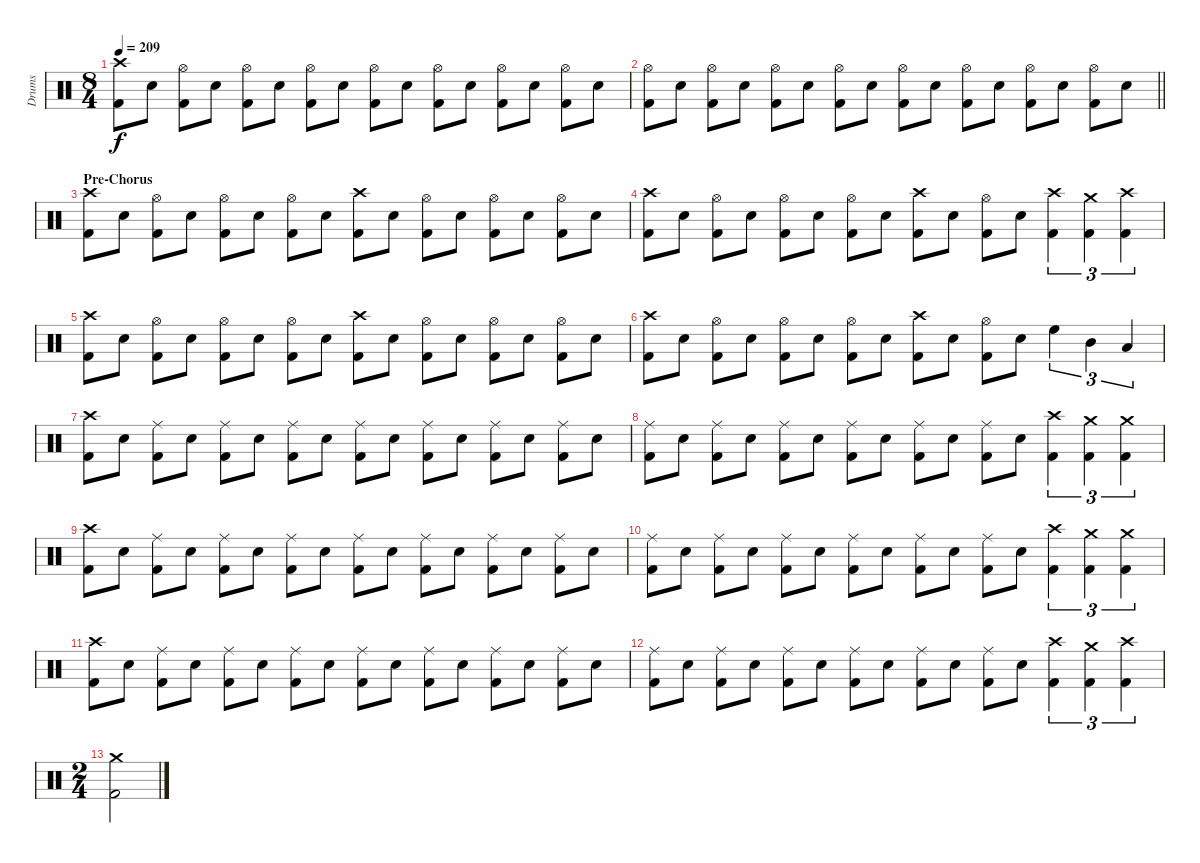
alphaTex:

\track ("Drums" "Drums") {instrument percussion}
\staff {score}
\articulation defaults
\ts (8 4)
\tempo 209
\clef neutral
\ks c
("Crash high (hit)" "Kick (hit) 2").8{dy f} "Snare (hit) 2".8 ("Hi-Hat (open)" "Kick (hit) 2").8 "Snare (hit) 2".8 ("Hi-Hat (open)" "Kick (hit) 2").8 "Snare (hit) 2".8 ("Hi-Hat (open)" "Kick (hit) 2").8 "Snare (hit) 2".8 ("Hi-Hat (open)" "Kick (hit) 2").8 "Snare (hit) 2".8 ("Hi-Hat (open)" "Kick (hit) 2").8 "Snare (hit) 2".8 ("Hi-Hat (open)" "Kick (hit) 2").8 "Snare (hit) 2".8 ("Hi-Hat (open)" "Kick (hit) 2").8 "Snare (hit) 2".8 |
\barLineRight lightlight
("Hi-Hat (open)" "Kick (hit) 2").8 "Snare (hit) 2".8 ("Hi-Hat (open)" "Kick (hit) 2").8 "Snare (hit) 2".8 ("Hi-Hat (open)" "Kick (hit) 2").8 "Snare (hit) 2".8 ("Hi-Hat (open)" "Kick (hit) 2").8 "Snare (hit) 2".8 ("Hi-Hat (open)" "Kick (hit) 2").8 "Snare (hit) 2".8 ("Hi-Hat (open)" "Kick (hit) 2").8 "Snare (hit) 2".8 ("Hi-Hat (open)" "Kick (hit) 2").8 "Snare (hit) 2".8 ("Hi-Hat (open)" "Kick (hit) 2").8 "Snare (hit) 2".8 |
\section ("" "Pre-Chorus")
("Crash high (hit)" "Kick (hit) 2").8 "Snare (hit) 2".8 ("Hi-Hat (open)" "Kick (hit) 2").8 "Snare (hit) 2".8 ("Hi-Hat (open)" "Kick (hit) 2").8 "Snare (hit) 2".8 ("Hi-Hat (open)" "Kick (hit) 2").8 "Snare (hit) 2".8 ("Crash high (hit)" "Kick (hit) 2").8 "Snare (hit) 2".8 ("Hi-Hat (open)" "Kick (hit) 2").8 "Snare (hit) 2".8 ("Hi-Hat (open)" "Kick (hit) 2").8 "Snare (hit) 2".8 ("Hi-Hat (open)" "Kick (hit) 2").8 "Snare (hit) 2".8 |
("Crash high (hit)" "Kick (hit) 2").8 "Snare (hit) 2".8 ("Hi-Hat (open)" "Kick (hit) 2").8 "Snare (hit) 2".8 ("Hi-Hat (open)" "Kick (hit) 2").8 "Snare (hit) 2".8 ("Hi-Hat (open)" "Kick (hit) 2").8 "Snare (hit) 2".8 ("Crash high (hit)" "Kick (hit) 2").8 "Snare (hit) 2".8 ("Hi-Hat (open)" "Kick (hit) 2").8 "Snare (hit) 2".8 ("Crash high (hit)" "Kick (hit) 2").4{tu (3 2)} ("Crash medium (hit)" "Kick (hit) 2").4{tu (3 2)} ("Crash high (hit)" "Kick (hit) 2").4{tu (3 2)} |
("Crash high (hit)" "Kick (hit) 2").8 "Snare (hit) 2".8 ("Hi-Hat (open)" "Kick (hit) 2").8 "Snare (hit) 2".8 ("Hi-Hat (open)" "Kick (hit) 2").8 "Snare (hit) 2".8 ("Hi-Hat (open)" "Kick (hit) 2").8 "Snare (hit) 2".8 ("Crash high (hit)" "Kick (hit) 2").8 "Snare (hit) 2".8 ("Hi-Hat (open)" "Kick (hit) 2").8 "Snare (hit) 2".8 ("Hi-Hat (open)" "Kick (hit) 2").8 "Snare (hit) 2".8 ("Hi-Hat (open)" "Kick (hit) 2").8 "Snare (hit) 2".8 |
("Crash high (hit)" "Kick (hit) 2").8 "Snare (hit) 2".8 ("Hi-Hat (open)" "Kick (hit) 2").8 "Snare (hit) 2".8 ("Hi-Hat (open)" "Kick (hit) 2").8 "Snare (hit) 2".8 ("Hi-Hat (open)" "Kick (hit) 2").8 "Snare (hit) 2".8 ("Crash high (hit)" "Kick (hit) 2").8 "Snare (hit) 2".8 ("Hi-Hat (open)" "Kick (hit) 2").8 "Snare (hit) 2".8 "High Floor Tom (hit)".4{tu (3 2)} "Mid Tom (hit)".4{tu (3 2)} "Low Tom (hit)".4{tu (3 2)} |
("Crash high (hit)" "Kick (hit) 2").8 "Snare (hit) 2".8 ("Ride (middle)" "Kick (hit) 2").8 "Snare (hit) 2".8 ("Ride (middle)" "Kick (hit) 2").8 "Snare (hit) 2".8 ("Ride (middle)" "Kick (hit) 2").8 "Snare (hit) 2".8 ("Ride (middle)" "Kick (hit) 2").8 "Snare (hit) 2".8 ("Ride (middle)" "Kick (hit) 2").8 "Snare (hit) 2".8 ("Ride (middle)" "Kick (hit) 2").8 "Snare (hit) 2".8 ("Ride (middle)" "Kick (hit) 2").8 "Snare (hit) 2".8 |
("Ride (middle)" "Kick (hit) 2").8 "Snare (hit) 2".8 ("Ride (middle)" "Kick (hit) 2").8 "Snare (hit) 2".8 ("Ride (middle)" "Kick (hit) 2").8 "Snare (hit) 2".8 ("Ride (middle)" "Kick (hit) 2").8 "Snare (hit) 2".8 ("Ride (middle)" "Kick (hit) 2").8 "Snare (hit) 2".8 ("Ride (middle)" "Kick (hit) 2").8 "Snare (hit) 2".8 ("Crash high (hit)" "Kick (hit) 2").4{tu (3 2)} ("Crash medium (hit)" "Kick (hit) 2").4{tu (3 2)} ("Crash medium (hit)" "Kick (hit) 2").4{tu (3 2)} |
("Crash high (hit)" "Kick (hit) 2").8 "Snare (hit) 2".8 ("Ride (middle)" "Kick (hit) 2").8 "Snare (hit) 2".8 ("Ride (middle)" "Kick (hit) 2").8 "Snare (hit) 2".8 ("Ride (middle)" "Kick (hit) 2").8 "Snare (hit) 2".8 ("Ride (middle)" "Kick (hit) 2").8 "Snare (hit) 2".8 ("Ride (middle)" "Kick (hit) 2").8 "Snare (hit) 2".8 ("Ride (middle)" "Kick (hit) 2").8 "Snare (hit) 2".8 ("Ride (middle)" "Kick (hit) 2").8 "Snare (hit) 2".8 |
("Ride (middle)" "Kick (hit) 2").8 "Snare (hit) 2".8 ("Ride (middle)" "Kick (hit) 2").8 "Snare (hit) 2".8 ("Ride (middle)" "Kick (hit) 2").8 "Snare (hit) 2".8 ("Ride (middle)" "Kick (hit) 2").8 "Snare (hit) 2".8 ("Ride (middle)" "Kick (hit) 2").8 "Snare (hit) 2".8 ("Ride (middle)" "Kick (hit) 2").8 "Snare (hit) 2".8 ("Crash high (hit)" "Kick (hit) 2").4{tu (3 2)} ("Crash medium (hit)" "Kick (hit) 2").4{tu (3 2)} ("Crash medium (hit)" "Kick (hit) 2").4{tu (3 2)} |
("Crash high (hit)" "Kick (hit) 2").8 "Snare (hit) 2".8 ("Ride (middle)" "Kick (hit) 2").8 "Snare (hit) 2".8 ("Ride (middle)" "Kick (hit) 2").8 "Snare (hit) 2".8 ("Ride (middle)" "Kick (hit) 2").8 "Snare (hit) 2".8 ("Ride (middle)" "Kick (hit) 2").8 "Snare (hit) 2".8 ("Ride (middle)" "Kick (hit) 2").8 "Snare (hit) 2".8 ("Ride (middle)" "Kick (hit) 2").8 "Snare (hit) 2".8 ("Ride (middle)" "Kick (hit) 2").8 "Snare (hit) 2".8 |
("Ride (middle)" "Kick (hit) 2").8 "Snare (hit) 2".8 ("Ride (middle)" "Kick (hit) 2").8 "Snare (hit) 2".8 ("Ride (middle)" "Kick (hit) 2").8 "Snare (hit) 2".8 ("Ride (middle)" "Kick (hit) 2").8 "Snare (hit) 2".8 ("Ride (middle)" "Kick (hit) 2").8 "Snare (hit) 2".8 ("Ride (middle)" "Kick (hit) 2").8 "Snare (hit) 2".8 ("Crash high (hit)" "Kick (hit) 2").4{tu (3 2)} ("Crash medium (hit)" "Kick (hit) 2").4{tu (3 2)} ("Crash high (hit)" "Kick (hit) 2").4{tu (3 2)} |
\ts (2 4)
("Crash medium (hit)" "Kick (hit) 2").2
